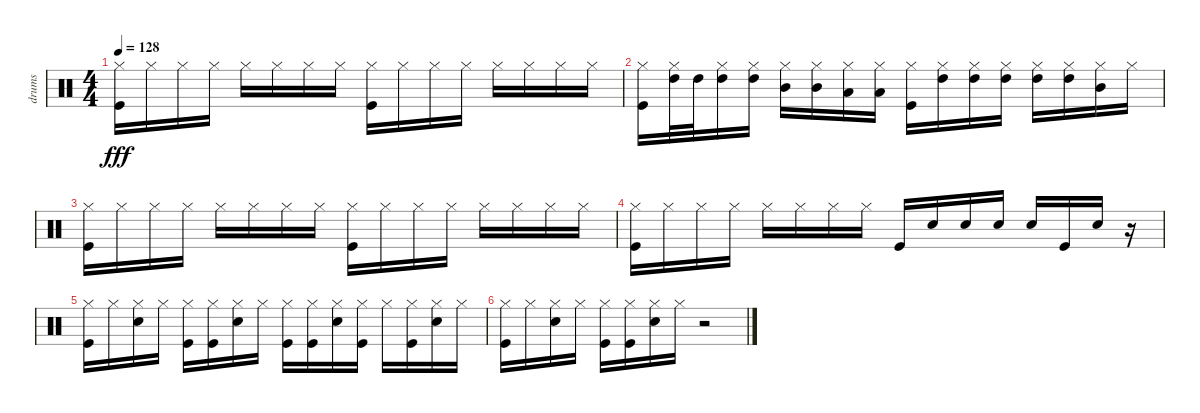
\track ("drums" "drums") {instrument percussion}
\staff {score}
\articulation defaults
\ts (4 4)
\tempo 128
\clef neutral
\ks c
("Kick (hit)" "Hi-Hat (closed)").16{dy fff} "Hi-Hat (closed)".16 "Hi-Hat (closed)".16 "Hi-Hat (closed)".16 "Hi-Hat (closed)".16 "Hi-Hat (closed)".16 "Hi-Hat (closed)".16 "Hi-Hat (closed)".16 ("Kick (hit)" "Hi-Hat (closed)").16 "Hi-Hat (closed)".16 "Hi-Hat (closed)".16 "Hi-Hat (closed)".16 "Hi-Hat (closed)".16 "Hi-Hat (closed)".16 "Hi-Hat (closed)".16 "Hi-Hat (closed)".16 |
("Kick (hit)" "Hi-Hat (closed)").16{volume 16} ("Hi-Hat (closed)" "High Tom (hit)").32 "High Tom (hit)".32 ("Hi-Hat (closed)" "High Tom (hit)").16{volume 15} ("Hi-Hat (closed)" "High Tom (hit)").16 ("Hi-Hat (closed)" "Mid Tom (hit)").16{volume 15} ("Hi-Hat (closed)" "Mid Tom (hit)").16 ("Hi-Hat (closed)" "Low Tom (hit)").16{volume 14} ("Hi-Hat (closed)" "Low Tom (hit)").16 ("Kick (hit)" "Hi-Hat (closed)").16{volume 14} ("Hi-Hat (closed)" "High Tom (hit)").16 ("Hi-Hat (closed)" "High Tom (hit)").16{volume 13} ("Hi-Hat (closed)" "High Tom (hit)").16 ("Hi-Hat (closed)" "High Tom (hit)").16{volume 13} ("Hi-Hat (closed)" "High Tom (hit)").16 ("Hi-Hat (closed)" "Mid Tom (hit)").16{volume 12} "Hi-Hat (closed)".16 |
("Kick (hit)" "Hi-Hat (closed)").16{volume 12} "Hi-Hat (closed)".16 "Hi-Hat (closed)".16{volume 12} "Hi-Hat (closed)".16 "Hi-Hat (closed)".16{volume 11} "Hi-Hat (closed)".16 "Hi-Hat (closed)".16{volume 11} "Hi-Hat (closed)".16 ("Kick (hit)" "Hi-Hat (closed)").16{volume 10} "Hi-Hat (closed)".16 "Hi-Hat (closed)".16{volume 10} "Hi-Hat (closed)".16 "Hi-Hat (closed)".16{volume 9} "Hi-Hat (closed)".16 "Hi-Hat (closed)".16{volume 9} "Hi-Hat (closed)".16 |
("Kick (hit)" "Hi-Hat (closed)").16{volume 8} "Hi-Hat (closed)".16 "Hi-Hat (closed)".16{volume 8} "Hi-Hat (closed)".16 "Hi-Hat (closed)".16{volume 8} "Hi-Hat (closed)".16 "Hi-Hat (closed)".16{volume 7} "Hi-Hat (closed)".16 "Kick (hit)".16{volume 7} "Snare (hit) 2".16 "Snare (hit) 2".16{volume 6} "Snare (hit) 2".16 "Snare (hit) 2".16{volume 6} "Kick (hit)".16 "Snare (hit) 2".16{volume 6} r.16 |
("Hi-Hat (closed)" "Kick (hit)").16{volume 5} "Hi-Hat (closed)".16 ("Hi-Hat (closed)" "Snare (hit) 2").16{volume 5} "Hi-Hat (closed)".16 ("Kick (hit)" "Hi-Hat (closed)").16{volume 4} ("Kick (hit)" "Hi-Hat (closed)").16 ("Snare (hit) 2" "Hi-Hat (closed)").16{volume 4} "Hi-Hat (closed)".16 ("Kick (hit)" "Hi-Hat (closed)").16{volume 3} ("Kick (hit)" "Hi-Hat (closed)").16 ("Snare (hit) 2" "Hi-Hat (closed)").16{volume 3} ("Hi-Hat (closed)" "Kick (hit)").16 "Hi-Hat (closed)".16{volume 2} ("Kick (hit)" "Hi-Hat (closed)").16 ("Snare (hit) 2" "Hi-Hat (closed)").16{volume 2} "Hi-Hat (closed)".16 |
("Hi-Hat (closed)" "Kick (hit)").16{volume 2} "Hi-Hat (closed)".16 ("Hi-Hat (closed)" "Snare (hit) 2").16{volume 1} "Hi-Hat (closed)".16 ("Kick (hit)" "Hi-Hat (closed)").16{volume 1} ("Kick (hit)" "Hi-Hat (closed)").16 ("Snare (hit) 2" "Hi-Hat (closed)").16{volume 0} "Hi-Hat (closed)".16 r.2
